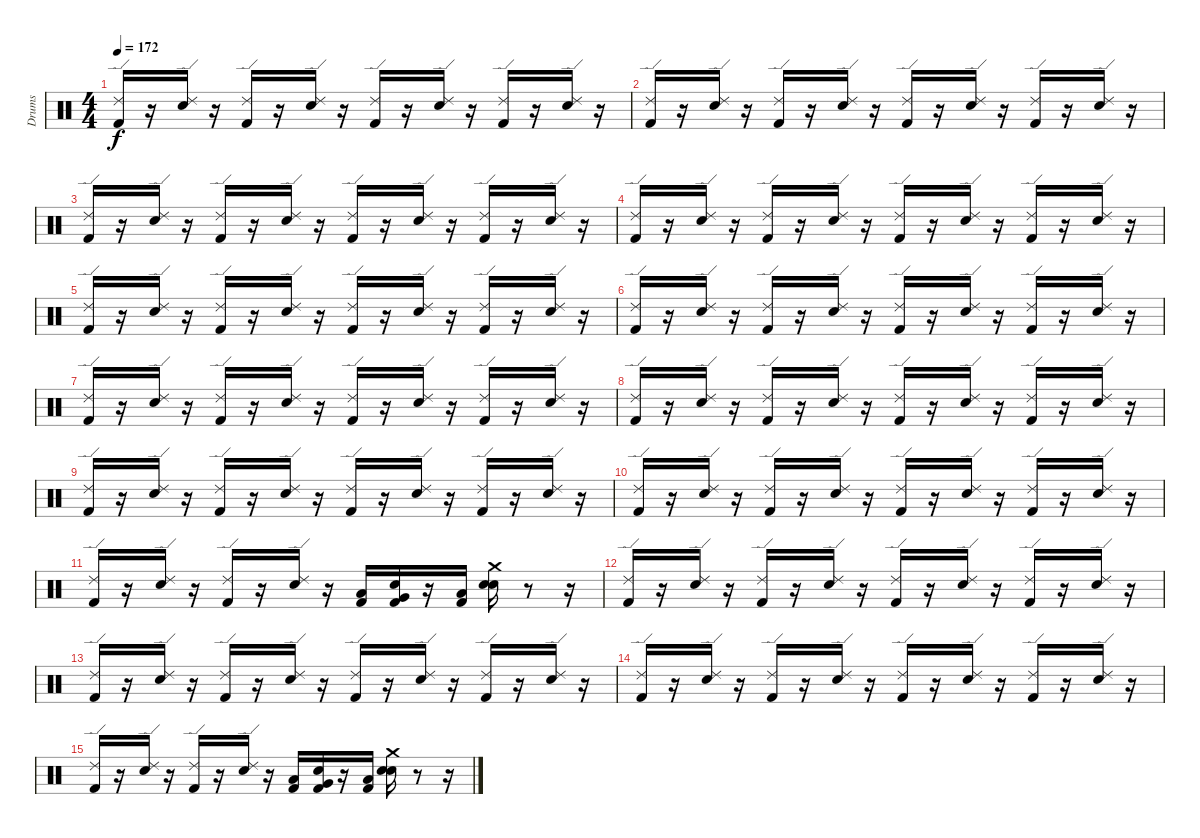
\track ("Drums" "Drums") {instrument percussion}
\staff {score}
\articulation defaults
\ts (4 4)
\tempo 172
\clef neutral
\ks c
("Kick (hit) 2" "Ride (edge) 2").16{dy f} r.16 ("Snare (hit) 2" "Ride (edge) 2").16 r.16 ("Kick (hit) 2" "Ride (edge) 2").16 r.16 ("Snare (hit) 2" "Ride (edge) 2").16 r.16 ("Kick (hit) 2" "Ride (edge) 2").16 r.16 ("Snare (hit) 2" "Ride (edge) 2").16 r.16 ("Kick (hit) 2" "Ride (edge) 2").16 r.16 ("Snare (hit) 2" "Ride (edge) 2").16 r.16 |
("Kick (hit) 2" "Ride (edge) 2").16 r.16 ("Snare (hit) 2" "Ride (edge) 2").16 r.16 ("Kick (hit) 2" "Ride (edge) 2").16 r.16 ("Snare (hit) 2" "Ride (edge) 2").16 r.16 ("Kick (hit) 2" "Ride (edge) 2").16 r.16 ("Snare (hit) 2" "Ride (edge) 2").16 r.16 ("Kick (hit) 2" "Ride (edge) 2").16 r.16 ("Snare (hit) 2" "Ride (edge) 2").16 r.16 |
("Kick (hit) 2" "Ride (edge) 2").16 r.16 ("Snare (hit) 2" "Ride (edge) 2").16 r.16 ("Kick (hit) 2" "Ride (edge) 2").16 r.16 ("Snare (hit) 2" "Ride (edge) 2").16 r.16 ("Kick (hit) 2" "Ride (edge) 2").16 r.16 ("Snare (hit) 2" "Ride (edge) 2").16 r.16 ("Kick (hit) 2" "Ride (edge) 2").16 r.16 ("Snare (hit) 2" "Ride (edge) 2").16 r.16 |
("Kick (hit) 2" "Ride (edge) 2").16 r.16 ("Snare (hit) 2" "Ride (edge) 2").16 r.16 ("Kick (hit) 2" "Ride (edge) 2").16 r.16 ("Snare (hit) 2" "Ride (edge) 2").16 r.16 ("Kick (hit) 2" "Ride (edge) 2").16 r.16 ("Snare (hit) 2" "Ride (edge) 2").16 r.16 ("Kick (hit) 2" "Ride (edge) 2").16 r.16 ("Snare (hit) 2" "Ride (edge) 2").16 r.16 |
("Kick (hit) 2" "Ride (edge) 2").16 r.16 ("Snare (hit) 2" "Ride (edge) 2").16 r.16 ("Kick (hit) 2" "Ride (edge) 2").16 r.16 ("Snare (hit) 2" "Ride (edge) 2").16 r.16 ("Kick (hit) 2" "Ride (edge) 2").16 r.16 ("Snare (hit) 2" "Ride (edge) 2").16 r.16 ("Kick (hit) 2" "Ride (edge) 2").16 r.16 ("Snare (hit) 2" "Ride (edge) 2").16 r.16 |
("Kick (hit) 2" "Ride (edge) 2").16 r.16 ("Snare (hit) 2" "Ride (edge) 2").16 r.16 ("Kick (hit) 2" "Ride (edge) 2").16 r.16 ("Snare (hit) 2" "Ride (edge) 2").16 r.16 ("Kick (hit) 2" "Ride (edge) 2").16 r.16 ("Snare (hit) 2" "Ride (edge) 2").16 r.16 ("Kick (hit) 2" "Ride (edge) 2").16 r.16 ("Snare (hit) 2" "Ride (edge) 2").16 r.16 |
("Kick (hit) 2" "Ride (edge) 2").16 r.16 ("Snare (hit) 2" "Ride (edge) 2").16 r.16 ("Kick (hit) 2" "Ride (edge) 2").16 r.16 ("Snare (hit) 2" "Ride (edge) 2").16 r.16 ("Kick (hit) 2" "Ride (edge) 2").16 r.16 ("Snare (hit) 2" "Ride (edge) 2").16 r.16 ("Kick (hit) 2" "Ride (edge) 2").16 r.16 ("Snare (hit) 2" "Ride (edge) 2").16 r.16 |
("Kick (hit) 2" "Ride (edge) 2").16 r.16 ("Snare (hit) 2" "Ride (edge) 2").16 r.16 ("Kick (hit) 2" "Ride (edge) 2").16 r.16 ("Snare (hit) 2" "Ride (edge) 2").16 r.16 ("Kick (hit) 2" "Ride (edge) 2").16 r.16 ("Snare (hit) 2" "Ride (edge) 2").16 r.16 ("Kick (hit) 2" "Ride (edge) 2").16 r.16 ("Snare (hit) 2" "Ride (edge) 2").16 r.16 |
("Kick (hit) 2" "Ride (edge) 2").16 r.16 ("Snare (hit) 2" "Ride (edge) 2").16 r.16 ("Kick (hit) 2" "Ride (edge) 2").16 r.16 ("Snare (hit) 2" "Ride (edge) 2").16 r.16 ("Kick (hit) 2" "Ride (edge) 2").16 r.16 ("Snare (hit) 2" "Ride (edge) 2").16 r.16 ("Kick (hit) 2" "Ride (edge) 2").16 r.16 ("Snare (hit) 2" "Ride (edge) 2").16 r.16 |
("Kick (hit) 2" "Ride (edge) 2").16 r.16 ("Snare (hit) 2" "Ride (edge) 2").16 r.16 ("Kick (hit) 2" "Ride (edge) 2").16 r.16 ("Snare (hit) 2" "Ride (edge) 2").16 r.16 ("Kick (hit) 2" "Ride (edge) 2").16 r.16 ("Snare (hit) 2" "Ride (edge) 2").16 r.16 ("Kick (hit) 2" "Ride (edge) 2").16 r.16 ("Snare (hit) 2" "Ride (edge) 2").16 r.16 |
("Kick (hit) 2" "Ride (edge) 2").16 r.16 ("Snare (hit) 2" "Ride (edge) 2").16 r.16 ("Kick (hit) 2" "Ride (edge) 2").16 r.16 ("Snare (hit) 2" "Ride (edge) 2").16 r.16 ("Kick (hit) 2" "Low Tom (hit)").16 ("Snare (hit)" "Kick (hit) 2" "Very Low Tom (hit)").16 r.16 ("Kick (hit) 2" "Low Floor Tom (hit)").16 ("Snare (hit)" "Snare (hit) 2" "Crash medium (hit)").16 r.8 r.16 |
("Kick (hit) 2" "Ride (edge) 2").16 r.16 ("Snare (hit) 2" "Ride (edge) 2").16 r.16 ("Kick (hit) 2" "Ride (edge) 2").16 r.16 ("Snare (hit) 2" "Ride (edge) 2").16 r.16 ("Kick (hit) 2" "Ride (edge) 2").16 r.16 ("Snare (hit) 2" "Ride (edge) 2").16 r.16 ("Kick (hit) 2" "Ride (edge) 2").16 r.16 ("Snare (hit) 2" "Ride (edge) 2").16 r.16 |
("Kick (hit) 2" "Ride (edge) 2").16 r.16 ("Snare (hit) 2" "Ride (edge) 2").16 r.16 ("Kick (hit) 2" "Ride (edge) 2").16 r.16 ("Snare (hit) 2" "Ride (edge) 2").16 r.16 ("Kick (hit) 2" "Ride (edge) 2").16 r.16 ("Snare (hit) 2" "Ride (edge) 2").16 r.16 ("Kick (hit) 2" "Ride (edge) 2").16 r.16 ("Snare (hit) 2" "Ride (edge) 2").16 r.16 |
("Kick (hit) 2" "Ride (edge) 2").16 r.16 ("Snare (hit) 2" "Ride (edge) 2").16 r.16 ("Kick (hit) 2" "Ride (edge) 2").16 r.16 ("Snare (hit) 2" "Ride (edge) 2").16 r.16 ("Kick (hit) 2" "Ride (edge) 2").16 r.16 ("Snare (hit) 2" "Ride (edge) 2").16 r.16 ("Kick (hit) 2" "Ride (edge) 2").16 r.16 ("Snare (hit) 2" "Ride (edge) 2").16 r.16 |
("Kick (hit) 2" "Ride (edge) 2").16 r.16 ("Snare (hit) 2" "Ride (edge) 2").16 r.16 ("Kick (hit) 2" "Ride (edge) 2").16 r.16 ("Snare (hit) 2" "Ride (edge) 2").16 r.16 ("Kick (hit) 2" "Low Tom (hit)").16 ("Snare (hit)" "Kick (hit) 2" "Very Low Tom (hit)").16 r.16 ("Kick (hit) 2" "Low Floor Tom (hit)").16 ("Snare (hit)" "Snare (hit) 2" "Crash medium (hit)").16 r.8 r.16
